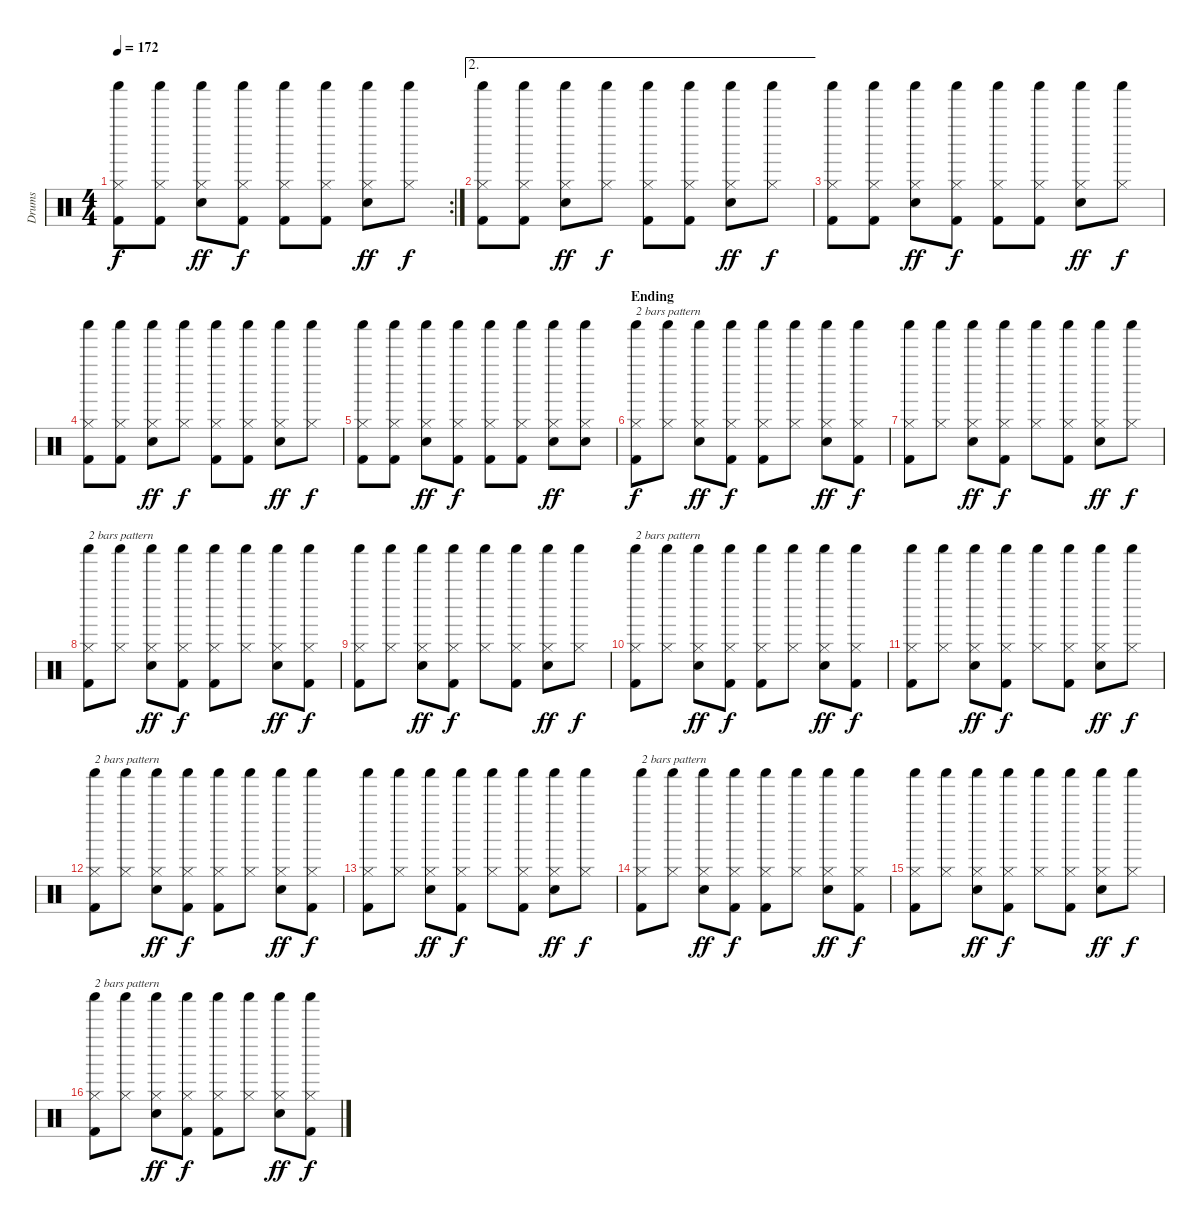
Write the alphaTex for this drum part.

\track ("Drums" "Drums") {instrument percussion}
\staff {score}
\articulation defaults
\rc 2
\ts (4 4)
\tempo 172
\clef neutral
\ks c
("Hi-Hat (closed)" "Shaker (hit)" "Kick (hit) 2").8{dy f} ("Hi-Hat (closed)" "Shaker (hit)" "Kick (hit) 2").8 ("Hi-Hat (closed)" "Shaker (hit)" "Electric Snare (hit)").8{dy ff} ("Hi-Hat (closed)" "Shaker (hit)" "Kick (hit) 2").8{dy f} ("Hi-Hat (closed)" "Shaker (hit)" "Kick (hit) 2").8 ("Hi-Hat (closed)" "Shaker (hit)" "Kick (hit) 2").8 ("Hi-Hat (closed)" "Shaker (hit)" "Electric Snare (hit)").8{dy ff} ("Hi-Hat (closed)" "Shaker (hit)").8{dy f} |
\ae 2
("Hi-Hat (closed)" "Shaker (hit)" "Kick (hit) 2").8 ("Hi-Hat (closed)" "Shaker (hit)" "Kick (hit) 2").8 ("Hi-Hat (closed)" "Shaker (hit)" "Electric Snare (hit)").8{dy ff} ("Hi-Hat (closed)" "Shaker (hit)").8{dy f} ("Hi-Hat (closed)" "Shaker (hit)" "Kick (hit) 2").8 ("Hi-Hat (closed)" "Shaker (hit)" "Kick (hit) 2").8 ("Hi-Hat (closed)" "Shaker (hit)" "Electric Snare (hit)").8{dy ff} ("Hi-Hat (closed)" "Shaker (hit)").8{dy f} |
("Hi-Hat (closed)" "Shaker (hit)" "Kick (hit) 2").8 ("Hi-Hat (closed)" "Shaker (hit)" "Kick (hit) 2").8 ("Hi-Hat (closed)" "Shaker (hit)" "Electric Snare (hit)").8{dy ff} ("Hi-Hat (closed)" "Shaker (hit)" "Kick (hit) 2").8{dy f} ("Hi-Hat (closed)" "Shaker (hit)" "Kick (hit) 2").8 ("Hi-Hat (closed)" "Shaker (hit)" "Kick (hit) 2").8 ("Hi-Hat (closed)" "Shaker (hit)" "Electric Snare (hit)").8{dy ff} ("Hi-Hat (closed)" "Shaker (hit)").8{dy f} |
("Hi-Hat (closed)" "Shaker (hit)" "Kick (hit) 2").8 ("Hi-Hat (closed)" "Shaker (hit)" "Kick (hit) 2").8 ("Hi-Hat (closed)" "Shaker (hit)" "Electric Snare (hit)").8{dy ff} ("Hi-Hat (closed)" "Shaker (hit)").8{dy f} ("Hi-Hat (closed)" "Shaker (hit)" "Kick (hit) 2").8 ("Hi-Hat (closed)" "Shaker (hit)" "Kick (hit) 2").8 ("Hi-Hat (closed)" "Shaker (hit)" "Electric Snare (hit)").8{dy ff} ("Hi-Hat (closed)" "Shaker (hit)").8{dy f} |
("Hi-Hat (closed)" "Shaker (hit)" "Kick (hit) 2").8 ("Hi-Hat (closed)" "Shaker (hit)" "Kick (hit) 2").8 ("Hi-Hat (closed)" "Shaker (hit)" "Electric Snare (hit)").8{dy ff} ("Hi-Hat (closed)" "Shaker (hit)" "Kick (hit) 2").8{dy f} ("Hi-Hat (closed)" "Shaker (hit)" "Kick (hit) 2").8 ("Hi-Hat (closed)" "Shaker (hit)" "Kick (hit) 2").8 ("Hi-Hat (closed)" "Shaker (hit)" "Electric Snare (hit)").8{dy ff} ("Hi-Hat (closed)" "Shaker (hit)" "Electric Snare (hit)").8 |
\section ("" "Ending")
("Hi-Hat (closed)" "Shaker (hit)" "Kick (hit) 2").8{txt "2 bars pattern" dy f} ("Hi-Hat (closed)" "Shaker (hit)").8 ("Hi-Hat (closed)" "Shaker (hit)" "Electric Snare (hit)").8{dy ff} ("Hi-Hat (closed)" "Shaker (hit)" "Kick (hit) 2").8{dy f} ("Hi-Hat (closed)" "Shaker (hit)" "Kick (hit) 2").8 ("Hi-Hat (closed)" "Shaker (hit)").8 ("Hi-Hat (closed)" "Shaker (hit)" "Electric Snare (hit)").8{dy ff} ("Hi-Hat (closed)" "Shaker (hit)" "Kick (hit) 2").8{dy f} |
("Hi-Hat (closed)" "Shaker (hit)" "Kick (hit) 2").8 ("Hi-Hat (closed)" "Shaker (hit)").8 ("Hi-Hat (closed)" "Shaker (hit)" "Electric Snare (hit)").8{dy ff} ("Hi-Hat (closed)" "Shaker (hit)" "Kick (hit) 2").8{dy f} ("Hi-Hat (closed)" "Shaker (hit)").8 ("Hi-Hat (closed)" "Shaker (hit)" "Kick (hit) 2").8 ("Hi-Hat (closed)" "Shaker (hit)" "Electric Snare (hit)").8{dy ff} ("Hi-Hat (closed)" "Shaker (hit)").8{dy f} |
("Hi-Hat (closed)" "Shaker (hit)" "Kick (hit) 2").8{txt "2 bars pattern"} ("Hi-Hat (closed)" "Shaker (hit)").8 ("Hi-Hat (closed)" "Shaker (hit)" "Electric Snare (hit)").8{dy ff} ("Hi-Hat (closed)" "Shaker (hit)" "Kick (hit) 2").8{dy f} ("Hi-Hat (closed)" "Shaker (hit)" "Kick (hit) 2").8 ("Hi-Hat (closed)" "Shaker (hit)").8 ("Hi-Hat (closed)" "Shaker (hit)" "Electric Snare (hit)").8{dy ff} ("Hi-Hat (closed)" "Shaker (hit)" "Kick (hit) 2").8{dy f} |
("Hi-Hat (closed)" "Shaker (hit)" "Kick (hit) 2").8 ("Hi-Hat (closed)" "Shaker (hit)").8 ("Hi-Hat (closed)" "Shaker (hit)" "Electric Snare (hit)").8{dy ff} ("Hi-Hat (closed)" "Shaker (hit)" "Kick (hit) 2").8{dy f} ("Hi-Hat (closed)" "Shaker (hit)").8 ("Hi-Hat (closed)" "Shaker (hit)" "Kick (hit) 2").8 ("Hi-Hat (closed)" "Shaker (hit)" "Electric Snare (hit)").8{dy ff} ("Hi-Hat (closed)" "Shaker (hit)").8{dy f} |
("Hi-Hat (closed)" "Shaker (hit)" "Kick (hit) 2").8{txt "2 bars pattern"} ("Hi-Hat (closed)" "Shaker (hit)").8 ("Hi-Hat (closed)" "Shaker (hit)" "Electric Snare (hit)").8{dy ff} ("Hi-Hat (closed)" "Shaker (hit)" "Kick (hit) 2").8{dy f} ("Hi-Hat (closed)" "Shaker (hit)" "Kick (hit) 2").8 ("Hi-Hat (closed)" "Shaker (hit)").8 ("Hi-Hat (closed)" "Shaker (hit)" "Electric Snare (hit)").8{dy ff} ("Hi-Hat (closed)" "Shaker (hit)" "Kick (hit) 2").8{dy f} |
("Hi-Hat (closed)" "Shaker (hit)" "Kick (hit) 2").8 ("Hi-Hat (closed)" "Shaker (hit)").8 ("Hi-Hat (closed)" "Shaker (hit)" "Electric Snare (hit)").8{dy ff} ("Hi-Hat (closed)" "Shaker (hit)" "Kick (hit) 2").8{dy f} ("Hi-Hat (closed)" "Shaker (hit)").8 ("Hi-Hat (closed)" "Shaker (hit)" "Kick (hit) 2").8 ("Hi-Hat (closed)" "Shaker (hit)" "Electric Snare (hit)").8{dy ff} ("Hi-Hat (closed)" "Shaker (hit)").8{dy f} |
("Hi-Hat (closed)" "Shaker (hit)" "Kick (hit) 2").8{txt "2 bars pattern"} ("Hi-Hat (closed)" "Shaker (hit)").8 ("Hi-Hat (closed)" "Shaker (hit)" "Electric Snare (hit)").8{dy ff} ("Hi-Hat (closed)" "Shaker (hit)" "Kick (hit) 2").8{dy f} ("Hi-Hat (closed)" "Shaker (hit)" "Kick (hit) 2").8 ("Hi-Hat (closed)" "Shaker (hit)").8 ("Hi-Hat (closed)" "Shaker (hit)" "Electric Snare (hit)").8{dy ff} ("Hi-Hat (closed)" "Shaker (hit)" "Kick (hit) 2").8{dy f} |
("Hi-Hat (closed)" "Shaker (hit)" "Kick (hit) 2").8 ("Hi-Hat (closed)" "Shaker (hit)").8 ("Hi-Hat (closed)" "Shaker (hit)" "Electric Snare (hit)").8{dy ff} ("Hi-Hat (closed)" "Shaker (hit)" "Kick (hit) 2").8{dy f} ("Hi-Hat (closed)" "Shaker (hit)").8 ("Hi-Hat (closed)" "Shaker (hit)" "Kick (hit) 2").8 ("Hi-Hat (closed)" "Shaker (hit)" "Electric Snare (hit)").8{dy ff} ("Hi-Hat (closed)" "Shaker (hit)").8{dy f} |
("Hi-Hat (closed)" "Shaker (hit)" "Kick (hit) 2").8{txt "2 bars pattern"} ("Hi-Hat (closed)" "Shaker (hit)").8 ("Hi-Hat (closed)" "Shaker (hit)" "Electric Snare (hit)").8{dy ff} ("Hi-Hat (closed)" "Shaker (hit)" "Kick (hit) 2").8{dy f} ("Hi-Hat (closed)" "Shaker (hit)" "Kick (hit) 2").8 ("Hi-Hat (closed)" "Shaker (hit)").8 ("Hi-Hat (closed)" "Shaker (hit)" "Electric Snare (hit)").8{dy ff} ("Hi-Hat (closed)" "Shaker (hit)" "Kick (hit) 2").8{dy f} |
("Hi-Hat (closed)" "Shaker (hit)" "Kick (hit) 2").8 ("Hi-Hat (closed)" "Shaker (hit)").8 ("Hi-Hat (closed)" "Shaker (hit)" "Electric Snare (hit)").8{dy ff} ("Hi-Hat (closed)" "Shaker (hit)" "Kick (hit) 2").8{dy f} ("Hi-Hat (closed)" "Shaker (hit)").8 ("Hi-Hat (closed)" "Shaker (hit)" "Kick (hit) 2").8 ("Hi-Hat (closed)" "Shaker (hit)" "Electric Snare (hit)").8{dy ff} ("Hi-Hat (closed)" "Shaker (hit)").8{dy f} |
("Hi-Hat (closed)" "Shaker (hit)" "Kick (hit) 2").8{txt "2 bars pattern"} ("Hi-Hat (closed)" "Shaker (hit)").8 ("Hi-Hat (closed)" "Shaker (hit)" "Electric Snare (hit)").8{dy ff} ("Hi-Hat (closed)" "Shaker (hit)" "Kick (hit) 2").8{dy f} ("Hi-Hat (closed)" "Shaker (hit)" "Kick (hit) 2").8 ("Hi-Hat (closed)" "Shaker (hit)").8 ("Hi-Hat (closed)" "Shaker (hit)" "Electric Snare (hit)").8{dy ff} ("Hi-Hat (closed)" "Shaker (hit)" "Kick (hit) 2").8{dy f}
